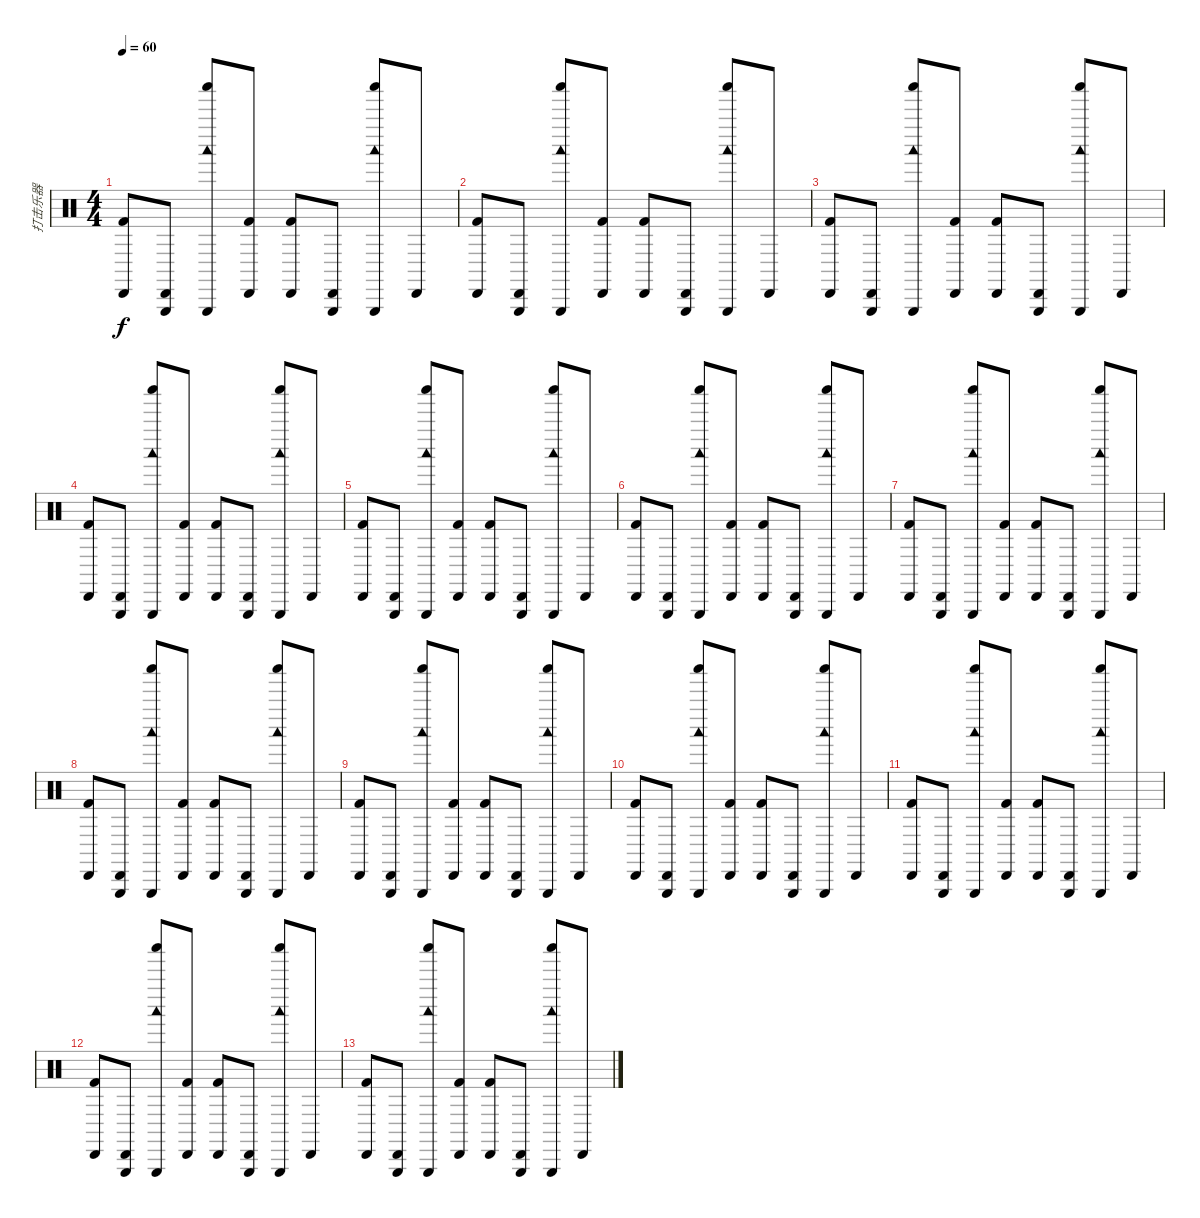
\track ("打击乐器" "打击乐器") {instrument percussion}
\staff {score}
\articulation defaults
\ts (4 4)
\tempo 60
\clef neutral
\ks c
("Kick (hit) 2" "Cabasa (hit)").8{dy f} ("Cabasa (hit)" "Triangle (hit)").8 ("Shaker (hit)" "Triangle (hit)" "Woodblock low (hit)").8 ("Kick (hit) 2" "Cabasa (hit)").8 ("Kick (hit) 2" "Cabasa (hit)").8 ("Cabasa (hit)" "Triangle (hit)").8 ("Shaker (hit)" "Triangle (hit)" "Woodblock low (hit)").8 "Cabasa (hit)".8 |
("Kick (hit) 2" "Cabasa (hit)").8 ("Cabasa (hit)" "Triangle (hit)").8 ("Shaker (hit)" "Triangle (hit)" "Woodblock low (hit)").8 ("Kick (hit) 2" "Cabasa (hit)").8 ("Kick (hit) 2" "Cabasa (hit)").8 ("Cabasa (hit)" "Triangle (hit)").8 ("Shaker (hit)" "Triangle (hit)" "Woodblock low (hit)").8 "Cabasa (hit)".8 |
("Kick (hit) 2" "Cabasa (hit)").8 ("Cabasa (hit)" "Triangle (hit)").8 ("Shaker (hit)" "Triangle (hit)" "Woodblock low (hit)").8 ("Kick (hit) 2" "Cabasa (hit)").8 ("Kick (hit) 2" "Cabasa (hit)").8 ("Cabasa (hit)" "Triangle (hit)").8 ("Shaker (hit)" "Triangle (hit)" "Woodblock low (hit)").8 "Cabasa (hit)".8 |
("Kick (hit) 2" "Cabasa (hit)").8 ("Cabasa (hit)" "Triangle (hit)").8 ("Shaker (hit)" "Triangle (hit)" "Woodblock low (hit)").8 ("Kick (hit) 2" "Cabasa (hit)").8 ("Kick (hit) 2" "Cabasa (hit)").8 ("Cabasa (hit)" "Triangle (hit)").8 ("Shaker (hit)" "Triangle (hit)" "Woodblock low (hit)").8 "Cabasa (hit)".8 |
("Kick (hit) 2" "Cabasa (hit)").8 ("Cabasa (hit)" "Triangle (hit)").8 ("Shaker (hit)" "Triangle (hit)" "Woodblock low (hit)").8 ("Kick (hit) 2" "Cabasa (hit)").8 ("Kick (hit) 2" "Cabasa (hit)").8 ("Cabasa (hit)" "Triangle (hit)").8 ("Shaker (hit)" "Triangle (hit)" "Woodblock low (hit)").8 "Cabasa (hit)".8 |
("Kick (hit) 2" "Cabasa (hit)").8 ("Cabasa (hit)" "Triangle (hit)").8 ("Shaker (hit)" "Triangle (hit)" "Woodblock low (hit)").8 ("Kick (hit) 2" "Cabasa (hit)").8 ("Kick (hit) 2" "Cabasa (hit)").8 ("Cabasa (hit)" "Triangle (hit)").8 ("Shaker (hit)" "Triangle (hit)" "Woodblock low (hit)").8 "Cabasa (hit)".8 |
("Kick (hit) 2" "Cabasa (hit)").8 ("Cabasa (hit)" "Triangle (hit)").8 ("Shaker (hit)" "Triangle (hit)" "Woodblock low (hit)").8 ("Kick (hit) 2" "Cabasa (hit)").8 ("Kick (hit) 2" "Cabasa (hit)").8 ("Cabasa (hit)" "Triangle (hit)").8 ("Shaker (hit)" "Triangle (hit)" "Woodblock low (hit)").8 "Cabasa (hit)".8 |
("Kick (hit) 2" "Cabasa (hit)").8 ("Cabasa (hit)" "Triangle (hit)").8 ("Shaker (hit)" "Triangle (hit)" "Woodblock low (hit)").8 ("Kick (hit) 2" "Cabasa (hit)").8 ("Kick (hit) 2" "Cabasa (hit)").8 ("Cabasa (hit)" "Triangle (hit)").8 ("Shaker (hit)" "Triangle (hit)" "Woodblock low (hit)").8 "Cabasa (hit)".8 |
("Kick (hit) 2" "Cabasa (hit)").8 ("Cabasa (hit)" "Triangle (hit)").8 ("Shaker (hit)" "Triangle (hit)" "Woodblock low (hit)").8 ("Kick (hit) 2" "Cabasa (hit)").8 ("Kick (hit) 2" "Cabasa (hit)").8 ("Cabasa (hit)" "Triangle (hit)").8 ("Shaker (hit)" "Triangle (hit)" "Woodblock low (hit)").8 "Cabasa (hit)".8 |
("Kick (hit) 2" "Cabasa (hit)").8 ("Cabasa (hit)" "Triangle (hit)").8 ("Shaker (hit)" "Triangle (hit)" "Woodblock low (hit)").8 ("Kick (hit) 2" "Cabasa (hit)").8 ("Kick (hit) 2" "Cabasa (hit)").8 ("Cabasa (hit)" "Triangle (hit)").8 ("Shaker (hit)" "Triangle (hit)" "Woodblock low (hit)").8 "Cabasa (hit)".8 |
("Kick (hit) 2" "Cabasa (hit)").8 ("Cabasa (hit)" "Triangle (hit)").8 ("Shaker (hit)" "Triangle (hit)" "Woodblock low (hit)").8 ("Kick (hit) 2" "Cabasa (hit)").8 ("Kick (hit) 2" "Cabasa (hit)").8 ("Cabasa (hit)" "Triangle (hit)").8 ("Shaker (hit)" "Triangle (hit)" "Woodblock low (hit)").8 "Cabasa (hit)".8 |
("Kick (hit) 2" "Cabasa (hit)").8 ("Cabasa (hit)" "Triangle (hit)").8 ("Shaker (hit)" "Triangle (hit)" "Woodblock low (hit)").8 ("Kick (hit) 2" "Cabasa (hit)").8 ("Kick (hit) 2" "Cabasa (hit)").8 ("Cabasa (hit)" "Triangle (hit)").8 ("Shaker (hit)" "Triangle (hit)" "Woodblock low (hit)").8 "Cabasa (hit)".8 |
("Kick (hit) 2" "Cabasa (hit)").8 ("Cabasa (hit)" "Triangle (hit)").8 ("Shaker (hit)" "Triangle (hit)" "Woodblock low (hit)").8 ("Kick (hit) 2" "Cabasa (hit)").8 ("Kick (hit) 2" "Cabasa (hit)").8 ("Cabasa (hit)" "Triangle (hit)").8 ("Shaker (hit)" "Triangle (hit)" "Woodblock low (hit)").8 "Cabasa (hit)".8
